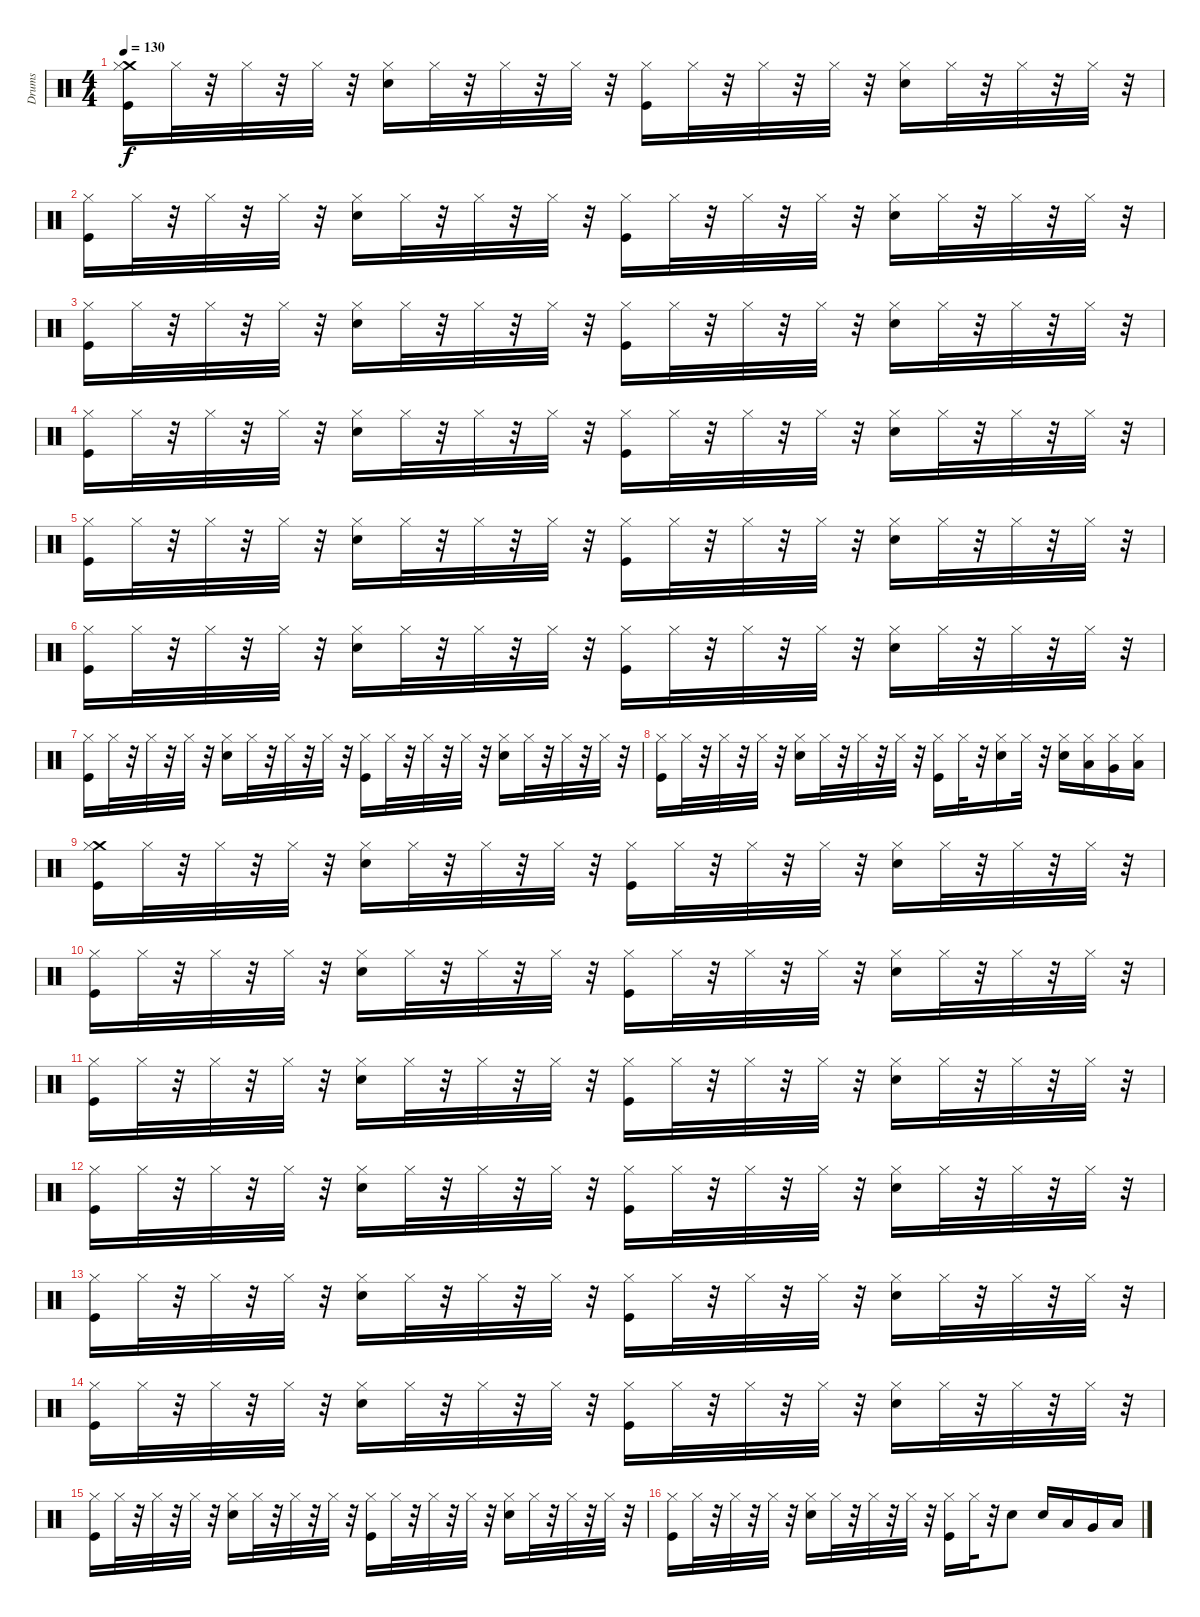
\track ("Drums" "Drums") {instrument percussion}
\staff {score}
\articulation defaults
\ts (4 4)
\tempo 130
\clef neutral
\ks c
("Crash medium (hit)" "Hi-Hat (closed)" "Kick (hit)").16{dy f} "Hi-Hat (closed)".32 r.32 "Hi-Hat (closed)".32 r.32 "Hi-Hat (closed)".32 r.32 ("Hi-Hat (closed)" "Snare (hit) 2").16 "Hi-Hat (closed)".32 r.32 "Hi-Hat (closed)".32 r.32 "Hi-Hat (closed)".32 r.32 ("Hi-Hat (closed)" "Kick (hit)").16 "Hi-Hat (closed)".32 r.32 "Hi-Hat (closed)".32 r.32 "Hi-Hat (closed)".32 r.32 ("Hi-Hat (closed)" "Snare (hit) 2").16 "Hi-Hat (closed)".32 r.32 "Hi-Hat (closed)".32 r.32 "Hi-Hat (closed)".32 r.32 |
("Hi-Hat (closed)" "Kick (hit)").16 "Hi-Hat (closed)".32 r.32 "Hi-Hat (closed)".32 r.32 "Hi-Hat (closed)".32 r.32 ("Hi-Hat (closed)" "Snare (hit) 2").16 "Hi-Hat (closed)".32 r.32 "Hi-Hat (closed)".32 r.32 "Hi-Hat (closed)".32 r.32 ("Hi-Hat (closed)" "Kick (hit)").16 "Hi-Hat (closed)".32 r.32 "Hi-Hat (closed)".32 r.32 "Hi-Hat (closed)".32 r.32 ("Hi-Hat (closed)" "Snare (hit) 2").16 "Hi-Hat (closed)".32 r.32 "Hi-Hat (closed)".32 r.32 "Hi-Hat (closed)".32 r.32 |
("Hi-Hat (closed)" "Kick (hit)").16 "Hi-Hat (closed)".32 r.32 "Hi-Hat (closed)".32 r.32 "Hi-Hat (closed)".32 r.32 ("Hi-Hat (closed)" "Snare (hit) 2").16 "Hi-Hat (closed)".32 r.32 "Hi-Hat (closed)".32 r.32 "Hi-Hat (closed)".32 r.32 ("Hi-Hat (closed)" "Kick (hit)").16 "Hi-Hat (closed)".32 r.32 "Hi-Hat (closed)".32 r.32 "Hi-Hat (closed)".32 r.32 ("Hi-Hat (closed)" "Snare (hit) 2").16 "Hi-Hat (closed)".32 r.32 "Hi-Hat (closed)".32 r.32 "Hi-Hat (closed)".32 r.32 |
("Hi-Hat (closed)" "Kick (hit)").16 "Hi-Hat (closed)".32 r.32 "Hi-Hat (closed)".32 r.32 "Hi-Hat (closed)".32 r.32 ("Hi-Hat (closed)" "Snare (hit) 2").16 "Hi-Hat (closed)".32 r.32 "Hi-Hat (closed)".32 r.32 "Hi-Hat (closed)".32 r.32 ("Hi-Hat (closed)" "Kick (hit)").16 "Hi-Hat (closed)".32 r.32 "Hi-Hat (closed)".32 r.32 "Hi-Hat (closed)".32 r.32 ("Hi-Hat (closed)" "Snare (hit) 2").16 "Hi-Hat (closed)".32 r.32 "Hi-Hat (closed)".32 r.32 "Hi-Hat (closed)".32 r.32 |
("Hi-Hat (closed)" "Kick (hit)").16 "Hi-Hat (closed)".32 r.32 "Hi-Hat (closed)".32 r.32 "Hi-Hat (closed)".32 r.32 ("Hi-Hat (closed)" "Snare (hit) 2").16 "Hi-Hat (closed)".32 r.32 "Hi-Hat (closed)".32 r.32 "Hi-Hat (closed)".32 r.32 ("Hi-Hat (closed)" "Kick (hit)").16 "Hi-Hat (closed)".32 r.32 "Hi-Hat (closed)".32 r.32 "Hi-Hat (closed)".32 r.32 ("Hi-Hat (closed)" "Snare (hit) 2").16 "Hi-Hat (closed)".32 r.32 "Hi-Hat (closed)".32 r.32 "Hi-Hat (closed)".32 r.32 |
("Hi-Hat (closed)" "Kick (hit)").16 "Hi-Hat (closed)".32 r.32 "Hi-Hat (closed)".32 r.32 "Hi-Hat (closed)".32 r.32 ("Hi-Hat (closed)" "Snare (hit) 2").16 "Hi-Hat (closed)".32 r.32 "Hi-Hat (closed)".32 r.32 "Hi-Hat (closed)".32 r.32 ("Hi-Hat (closed)" "Kick (hit)").16 "Hi-Hat (closed)".32 r.32 "Hi-Hat (closed)".32 r.32 "Hi-Hat (closed)".32 r.32 ("Hi-Hat (closed)" "Snare (hit) 2").16 "Hi-Hat (closed)".32 r.32 "Hi-Hat (closed)".32 r.32 "Hi-Hat (closed)".32 r.32 |
("Hi-Hat (closed)" "Kick (hit)").16 "Hi-Hat (closed)".32 r.32 "Hi-Hat (closed)".32 r.32 "Hi-Hat (closed)".32 r.32 ("Hi-Hat (closed)" "Snare (hit) 2").16 "Hi-Hat (closed)".32 r.32 "Hi-Hat (closed)".32 r.32 "Hi-Hat (closed)".32 r.32 ("Hi-Hat (closed)" "Kick (hit)").16 "Hi-Hat (closed)".32 r.32 "Hi-Hat (closed)".32 r.32 "Hi-Hat (closed)".32 r.32 ("Hi-Hat (closed)" "Snare (hit) 2").16 "Hi-Hat (closed)".32 r.32 "Hi-Hat (closed)".32 r.32 "Hi-Hat (closed)".32 r.32 |
("Hi-Hat (closed)" "Kick (hit)").16 "Hi-Hat (closed)".32 r.32 "Hi-Hat (closed)".32 r.32 "Hi-Hat (closed)".32 r.32 ("Hi-Hat (closed)" "Snare (hit) 2").16 "Hi-Hat (closed)".32 r.32 "Hi-Hat (closed)".32 r.32 "Hi-Hat (closed)".32 r.32 ("Hi-Hat (closed)" "Kick (hit)").16 "Hi-Hat (closed)".32 r.32 ("Snare (hit) 2" "Hi-Hat (closed)").16 "Hi-Hat (closed)".32 r.32 ("Snare (hit) 2" "Hi-Hat (closed)").16 ("Low Tom (hit)" "Hi-Hat (closed)").16 ("Very Low Tom (hit)" "Hi-Hat (closed)").16 ("Low Floor Tom (hit)" "Hi-Hat (closed)").16 |
("Crash medium (hit)" "Hi-Hat (closed)" "Kick (hit)").16 "Hi-Hat (closed)".32 r.32 "Hi-Hat (closed)".32 r.32 "Hi-Hat (closed)".32 r.32 ("Hi-Hat (closed)" "Snare (hit) 2").16 "Hi-Hat (closed)".32 r.32 "Hi-Hat (closed)".32 r.32 "Hi-Hat (closed)".32 r.32 ("Hi-Hat (closed)" "Kick (hit)").16 "Hi-Hat (closed)".32 r.32 "Hi-Hat (closed)".32 r.32 "Hi-Hat (closed)".32 r.32 ("Hi-Hat (closed)" "Snare (hit) 2").16 "Hi-Hat (closed)".32 r.32 "Hi-Hat (closed)".32 r.32 "Hi-Hat (closed)".32 r.32 |
("Hi-Hat (closed)" "Kick (hit)").16 "Hi-Hat (closed)".32 r.32 "Hi-Hat (closed)".32 r.32 "Hi-Hat (closed)".32 r.32 ("Hi-Hat (closed)" "Snare (hit) 2").16 "Hi-Hat (closed)".32 r.32 "Hi-Hat (closed)".32 r.32 "Hi-Hat (closed)".32 r.32 ("Hi-Hat (closed)" "Kick (hit)").16 "Hi-Hat (closed)".32 r.32 "Hi-Hat (closed)".32 r.32 "Hi-Hat (closed)".32 r.32 ("Hi-Hat (closed)" "Snare (hit) 2").16 "Hi-Hat (closed)".32 r.32 "Hi-Hat (closed)".32 r.32 "Hi-Hat (closed)".32 r.32 |
("Hi-Hat (closed)" "Kick (hit)").16 "Hi-Hat (closed)".32 r.32 "Hi-Hat (closed)".32 r.32 "Hi-Hat (closed)".32 r.32 ("Hi-Hat (closed)" "Snare (hit) 2").16 "Hi-Hat (closed)".32 r.32 "Hi-Hat (closed)".32 r.32 "Hi-Hat (closed)".32 r.32 ("Hi-Hat (closed)" "Kick (hit)").16 "Hi-Hat (closed)".32 r.32 "Hi-Hat (closed)".32 r.32 "Hi-Hat (closed)".32 r.32 ("Hi-Hat (closed)" "Snare (hit) 2").16 "Hi-Hat (closed)".32 r.32 "Hi-Hat (closed)".32 r.32 "Hi-Hat (closed)".32 r.32 |
("Hi-Hat (closed)" "Kick (hit)").16 "Hi-Hat (closed)".32 r.32 "Hi-Hat (closed)".32 r.32 "Hi-Hat (closed)".32 r.32 ("Hi-Hat (closed)" "Snare (hit) 2").16 "Hi-Hat (closed)".32 r.32 "Hi-Hat (closed)".32 r.32 "Hi-Hat (closed)".32 r.32 ("Hi-Hat (closed)" "Kick (hit)").16 "Hi-Hat (closed)".32 r.32 "Hi-Hat (closed)".32 r.32 "Hi-Hat (closed)".32 r.32 ("Hi-Hat (closed)" "Snare (hit) 2").16 "Hi-Hat (closed)".32 r.32 "Hi-Hat (closed)".32 r.32 "Hi-Hat (closed)".32 r.32 |
("Hi-Hat (closed)" "Kick (hit)").16 "Hi-Hat (closed)".32 r.32 "Hi-Hat (closed)".32 r.32 "Hi-Hat (closed)".32 r.32 ("Hi-Hat (closed)" "Snare (hit) 2").16 "Hi-Hat (closed)".32 r.32 "Hi-Hat (closed)".32 r.32 "Hi-Hat (closed)".32 r.32 ("Hi-Hat (closed)" "Kick (hit)").16 "Hi-Hat (closed)".32 r.32 "Hi-Hat (closed)".32 r.32 "Hi-Hat (closed)".32 r.32 ("Hi-Hat (closed)" "Snare (hit) 2").16 "Hi-Hat (closed)".32 r.32 "Hi-Hat (closed)".32 r.32 "Hi-Hat (closed)".32 r.32 |
("Hi-Hat (closed)" "Kick (hit)").16 "Hi-Hat (closed)".32 r.32 "Hi-Hat (closed)".32 r.32 "Hi-Hat (closed)".32 r.32 ("Hi-Hat (closed)" "Snare (hit) 2").16 "Hi-Hat (closed)".32 r.32 "Hi-Hat (closed)".32 r.32 "Hi-Hat (closed)".32 r.32 ("Hi-Hat (closed)" "Kick (hit)").16 "Hi-Hat (closed)".32 r.32 "Hi-Hat (closed)".32 r.32 "Hi-Hat (closed)".32 r.32 ("Hi-Hat (closed)" "Snare (hit) 2").16 "Hi-Hat (closed)".32 r.32 "Hi-Hat (closed)".32 r.32 "Hi-Hat (closed)".32 r.32 |
("Hi-Hat (closed)" "Kick (hit)").16 "Hi-Hat (closed)".32 r.32 "Hi-Hat (closed)".32 r.32 "Hi-Hat (closed)".32 r.32 ("Hi-Hat (closed)" "Snare (hit) 2").16 "Hi-Hat (closed)".32 r.32 "Hi-Hat (closed)".32 r.32 "Hi-Hat (closed)".32 r.32 ("Hi-Hat (closed)" "Kick (hit)").16 "Hi-Hat (closed)".32 r.32 "Hi-Hat (closed)".32 r.32 "Hi-Hat (closed)".32 r.32 ("Hi-Hat (closed)" "Snare (hit) 2").16 "Hi-Hat (closed)".32 r.32 "Hi-Hat (closed)".32 r.32 "Hi-Hat (closed)".32 r.32 |
("Kick (hit)" "Hi-Hat (closed)").16 "Hi-Hat (closed)".32 r.32 "Hi-Hat (closed)".32 r.32 "Hi-Hat (closed)".32 r.32 ("Hi-Hat (closed)" "Snare (hit) 2").16 "Hi-Hat (closed)".32 r.32 "Hi-Hat (closed)".32 r.32 "Hi-Hat (closed)".32 r.32 ("Hi-Hat (closed)" "Kick (hit)").16 "Hi-Hat (closed)".32 r.32 "Snare (hit) 2".8 "Snare (hit) 2".16 "Low Tom (hit)".16 "Very Low Tom (hit)".16 "Low Floor Tom (hit)".16
